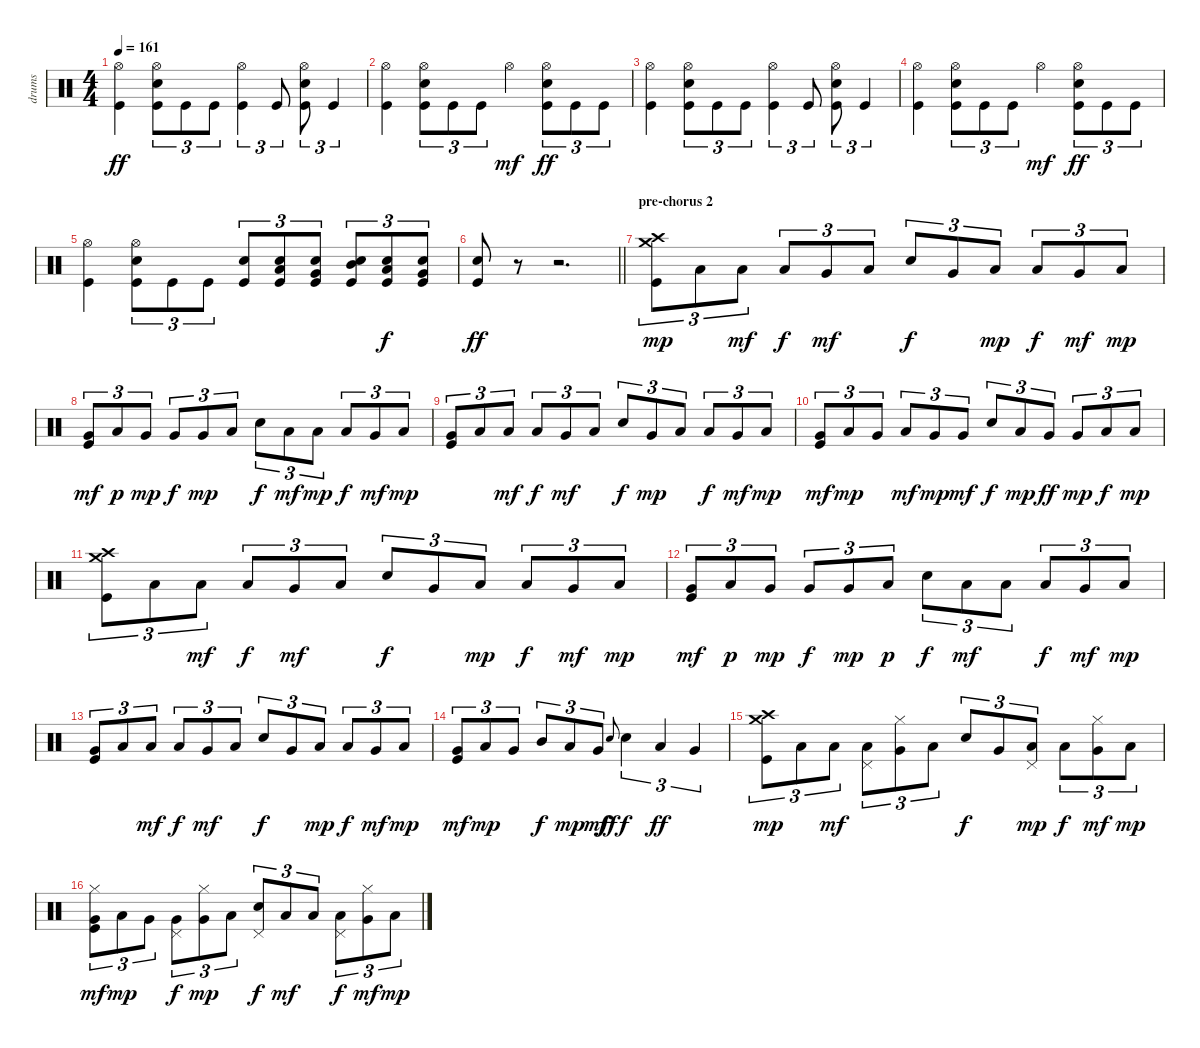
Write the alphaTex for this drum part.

\track ("drums" "drums") {instrument percussion}
\staff {score}
\articulation defaults
\ts (4 4)
\tempo 161
\clef neutral
\ks c
("Hi-Hat (open)" "Kick (hit)").4{dy ff} ("Hi-Hat (open)" "Electric Snare (hit)" "Kick (hit)").8{tu (3 2)} "Kick (hit)".8{tu (3 2)} "Kick (hit)".8{tu (3 2)} ("Hi-Hat (open)" "Kick (hit)").4{tu (3 2)} "Kick (hit)".8{tu (3 2)} ("Hi-Hat (open)" "Electric Snare (hit)" "Kick (hit)").8{tu (3 2)} "Kick (hit)".4{tu (3 2)} |
("Hi-Hat (open)" "Kick (hit)").4 ("Hi-Hat (open)" "Electric Snare (hit)" "Kick (hit)").8{tu (3 2)} "Kick (hit)".8{tu (3 2)} "Kick (hit)".8{tu (3 2)} "Hi-Hat (open)".4{dy mf} ("Hi-Hat (open)" "Electric Snare (hit)" "Kick (hit)").8{tu (3 2) dy ff} "Kick (hit)".8{tu (3 2)} "Kick (hit)".8{tu (3 2)} |
("Hi-Hat (open)" "Kick (hit)").4 ("Hi-Hat (open)" "Electric Snare (hit)" "Kick (hit)").8{tu (3 2)} "Kick (hit)".8{tu (3 2)} "Kick (hit)".8{tu (3 2)} ("Hi-Hat (open)" "Kick (hit)").4{tu (3 2)} "Kick (hit)".8{tu (3 2)} ("Hi-Hat (open)" "Electric Snare (hit)" "Kick (hit)").8{tu (3 2)} "Kick (hit)".4{tu (3 2)} |
("Hi-Hat (open)" "Kick (hit)").4 ("Hi-Hat (open)" "Electric Snare (hit)" "Kick (hit)").8{tu (3 2)} "Kick (hit)".8{tu (3 2)} "Kick (hit)".8{tu (3 2)} "Hi-Hat (open)".4{dy mf} ("Hi-Hat (open)" "Electric Snare (hit)" "Kick (hit)").8{tu (3 2) dy ff} "Kick (hit)".8{tu (3 2)} "Kick (hit)".8{tu (3 2)} |
("Hi-Hat (open)" "Kick (hit)").4 ("Hi-Hat (open)" "Electric Snare (hit)" "Kick (hit)").8{tu (3 2)} "Kick (hit)".8{tu (3 2)} "Kick (hit)".8{tu (3 2)} ("Electric Snare (hit)" "Kick (hit)").8{tu (3 2)} ("Electric Snare (hit)" "Low Tom (hit)" "Kick (hit)").8{tu (3 2)} ("Electric Snare (hit)" "Very Low Tom (hit)" "Kick (hit)").8{tu (3 2)} ("Electric Snare (hit)" "Mid Tom (hit)" "Kick (hit)").8{tu (3 2)} ("Electric Snare (hit)" "Low Tom (hit)" "Kick (hit)").8{tu (3 2) dy f} ("Electric Snare (hit)" "Very Low Tom (hit)" "Kick (hit)").8{tu (3 2)} |
\barLineRight lightlight
("Electric Snare (hit)" "Kick (hit)").8{dy ff} r.8 r.2{d} |
\section ("" "pre-chorus 2")
("Crash medium (hit)" "Crash high (hit)" "Kick (hit)").8{tu (3 2) dy mp} "Low Tom (hit)".8{tu (3 2)} "Low Tom (hit)".8{tu (3 2) dy mf} "Low Tom (hit)".8{tu (3 2) dy f} "Very Low Tom (hit)".8{tu (3 2) dy mf} "Low Floor Tom (hit)".8{tu (3 2)} "Electric Snare (hit)".8{tu (3 2) dy f} "Very Low Tom (hit)".8{tu (3 2)} "Low Tom (hit)".8{tu (3 2) dy mp} "Low Tom (hit)".8{tu (3 2) dy f} "Very Low Tom (hit)".8{tu (3 2) dy mf} "Low Floor Tom (hit)".8{tu (3 2) dy mp} |
("Very Low Tom (hit)" "Kick (hit)").8{tu (3 2) dy mf} "Low Tom (hit)".8{tu (3 2) dy p} "Very Low Tom (hit)".8{tu (3 2) dy mp} "Very Low Tom (hit)".8{tu (3 2) dy f} "Very Low Tom (hit)".8{tu (3 2) dy mp} "Low Floor Tom (hit)".8{tu (3 2)} "Electric Snare (hit)".8{tu (3 2) dy f} "Low Floor Tom (hit)".8{tu (3 2) dy mf} "Low Tom (hit)".8{tu (3 2) dy mp} "Low Tom (hit)".8{tu (3 2) dy f} "Very Low Tom (hit)".8{tu (3 2) dy mf} "Low Floor Tom (hit)".8{tu (3 2) dy mp} |
("Very Low Tom (hit)" "Kick (hit)").8{tu (3 2)} "Low Tom (hit)".8{tu (3 2)} "Low Tom (hit)".8{tu (3 2) dy mf} "Low Tom (hit)".8{tu (3 2) dy f} "Very Low Tom (hit)".8{tu (3 2) dy mf} "Low Floor Tom (hit)".8{tu (3 2)} "Electric Snare (hit)".8{tu (3 2) dy f} "Very Low Tom (hit)".8{tu (3 2) dy mp} "Low Tom (hit)".8{tu (3 2)} "Low Tom (hit)".8{tu (3 2) dy f} "Very Low Tom (hit)".8{tu (3 2) dy mf} "Low Floor Tom (hit)".8{tu (3 2) dy mp} |
("Very Low Tom (hit)" "Kick (hit)").8{tu (3 2) dy mf} "Low Tom (hit)".8{tu (3 2) dy mp} "Very Low Tom (hit)".8{tu (3 2)} "Low Tom (hit)".8{tu (3 2) dy mf} "Very Low Tom (hit)".8{tu (3 2) dy mp} "Very Low Tom (hit)".8{tu (3 2) dy mf} "Electric Snare (hit)".8{tu (3 2) dy f} "Low Tom (hit)".8{tu (3 2) dy mp} "Very Low Tom (hit)".8{tu (3 2) dy ff} "Very Low Tom (hit)".8{tu (3 2) dy mp} "Low Floor Tom (hit)".8{tu (3 2) dy f} "Low Floor Tom (hit)".8{tu (3 2) dy mp} |
("Crash high (hit)" "Crash medium (hit)" "Kick (hit)").8{tu (3 2)} "Low Tom (hit)".8{tu (3 2)} "Low Tom (hit)".8{tu (3 2) dy mf} "Low Tom (hit)".8{tu (3 2) dy f} "Very Low Tom (hit)".8{tu (3 2) dy mf} "Low Floor Tom (hit)".8{tu (3 2)} "Electric Snare (hit)".8{tu (3 2) dy f} "Very Low Tom (hit)".8{tu (3 2)} "Low Tom (hit)".8{tu (3 2) dy mp} "Low Tom (hit)".8{tu (3 2) dy f} "Very Low Tom (hit)".8{tu (3 2) dy mf} "Low Floor Tom (hit)".8{tu (3 2) dy mp} |
("Very Low Tom (hit)" "Kick (hit)").8{tu (3 2) dy mf} "Low Tom (hit)".8{tu (3 2) dy p} "Very Low Tom (hit)".8{tu (3 2) dy mp} "Very Low Tom (hit)".8{tu (3 2) dy f} "Very Low Tom (hit)".8{tu (3 2) dy mp} "Low Floor Tom (hit)".8{tu (3 2) dy p} "Electric Snare (hit)".8{tu (3 2) dy f} "Low Floor Tom (hit)".8{tu (3 2) dy mf} "Low Tom (hit)".8{tu (3 2)} "Low Tom (hit)".8{tu (3 2) dy f} "Very Low Tom (hit)".8{tu (3 2) dy mf} "Low Floor Tom (hit)".8{tu (3 2) dy mp} |
("Very Low Tom (hit)" "Kick (hit)").8{tu (3 2)} "Low Tom (hit)".8{tu (3 2)} "Low Tom (hit)".8{tu (3 2) dy mf} "Low Tom (hit)".8{tu (3 2) dy f} "Very Low Tom (hit)".8{tu (3 2) dy mf} "Low Floor Tom (hit)".8{tu (3 2)} "Electric Snare (hit)".8{tu (3 2) dy f} "Very Low Tom (hit)".8{tu (3 2)} "Low Tom (hit)".8{tu (3 2) dy mp} "Low Tom (hit)".8{tu (3 2) dy f} "Very Low Tom (hit)".8{tu (3 2) dy mf} "Low Floor Tom (hit)".8{tu (3 2) dy mp} |
("Very Low Tom (hit)" "Kick (hit)").8{tu (3 2) dy mf} "Low Tom (hit)".8{tu (3 2) dy mp} "Very Low Tom (hit)".8{tu (3 2)} "Mid Tom (hit)".8{tu (3 2) dy f} "Low Tom (hit)".8{tu (3 2) dy mp} "Very Low Tom (hit)".8{tu (3 2) dy mf} "Electric Snare (hit)".8{gr onbeat dy ff} "Electric Snare (hit)".4{tu (3 2) dy f} "Low Tom (hit)".4{tu (3 2) dy ff} "Very Low Tom (hit)".4{tu (3 2)} |
("Crash medium (hit)" "Crash high (hit)" "Kick (hit)").8{tu (3 2) dy mp} "Low Tom (hit)".8{tu (3 2)} "Low Tom (hit)".8{tu (3 2) dy mf} ("Pedal Hi-Hat (hit)" "Low Tom (hit)").8{tu (3 2)} ("Hi-Hat (closed)" "Very Low Tom (hit)").8{tu (3 2)} "Low Floor Tom (hit)".8{tu (3 2)} "Electric Snare (hit)".8{tu (3 2) dy f} "Very Low Tom (hit)".8{tu (3 2)} ("Pedal Hi-Hat (hit)" "Low Tom (hit)").8{tu (3 2) dy mp} "Low Tom (hit)".8{tu (3 2) dy f} ("Hi-Hat (closed)" "Very Low Tom (hit)").8{tu (3 2) dy mf} "Low Floor Tom (hit)".8{tu (3 2) dy mp} |
("Hi-Hat (closed)" "Very Low Tom (hit)" "Kick (hit)").8{tu (3 2) dy mf} "Low Tom (hit)".8{tu (3 2) dy mp} "Very Low Tom (hit)".8{tu (3 2)} ("Pedal Hi-Hat (hit)" "Very Low Tom (hit)").8{tu (3 2) dy f} ("Hi-Hat (closed)" "Very Low Tom (hit)").8{tu (3 2) dy mp} "Low Floor Tom (hit)".8{tu (3 2)} ("Pedal Hi-Hat (hit)" "Electric Snare (hit)").8{tu (3 2) dy f} "Low Floor Tom (hit)".8{tu (3 2) dy mf} "Low Tom (hit)".8{tu (3 2)} ("Pedal Hi-Hat (hit)" "Low Tom (hit)").8{tu (3 2) dy f} ("Hi-Hat (closed)" "Very Low Tom (hit)").8{tu (3 2) dy mf} "Low Floor Tom (hit)".8{tu (3 2) dy mp}
